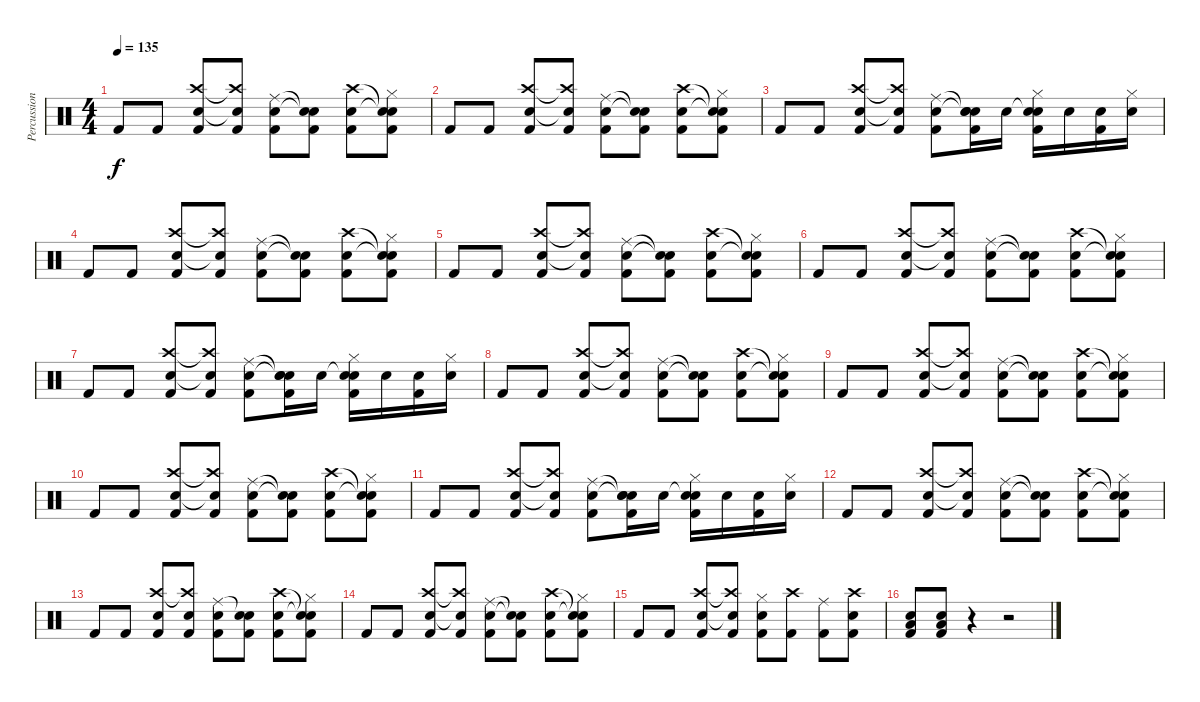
\track ("Percussion" "Percussion") {instrument percussion}
\staff {score}
\articulation defaults
\ts (4 4)
\tempo 135
\clef neutral
\ks c "Kick (hit) 2".8{dy f} "Kick (hit) 2".8
("Crash high (hit)" "Electric Snare (hit)" "Kick (hit) 2").8 ("Crash high (hit)"{t} "Electric Snare (hit)"{t} "Kick (hit) 2").8 ("Ride (middle)" "Electric Snare (hit)" "Kick (hit) 2").8 ("Snare (hit)"{t} "Snare (hit)"{t} "Kick (hit) 2").8 ("Crash high (hit)" "Electric Snare (hit)" "Kick (hit) 2").8 ("Snare (hit)"{t} "Snare (hit)"{t} "Hi-Hat (closed)" "Kick (hit) 2").8 |
"Kick (hit) 2".8 "Kick (hit) 2".8 ("Crash high (hit)" "Electric Snare (hit)" "Kick (hit) 2").8 ("Crash high (hit)"{t} "Electric Snare (hit)"{t} "Kick (hit) 2").8 ("Ride (middle)" "Electric Snare (hit)" "Kick (hit) 2").8 ("Snare (hit)"{t} "Snare (hit)"{t} "Kick (hit) 2").8 ("Crash high (hit)" "Electric Snare (hit)" "Kick (hit) 2").8 ("Snare (hit)"{t} "Snare (hit)"{t} "Hi-Hat (closed)" "Kick (hit) 2").8 |
"Kick (hit) 2".8 "Kick (hit) 2".8 ("Crash high (hit)" "Electric Snare (hit)" "Kick (hit) 2").8 ("Crash high (hit)"{t} "Electric Snare (hit)"{t} "Kick (hit) 2").8 ("Ride (middle)" "Electric Snare (hit)" "Kick (hit) 2").8 ("Snare (hit)"{t} "Snare (hit)"{t} "Electric Snare (hit)" "Kick (hit) 2").16 "Electric Snare (hit)".16 ("Snare (hit)"{t} "Hi-Hat (closed)" "Electric Snare (hit)" "Kick (hit) 2").16 "Electric Snare (hit)".16 ("Electric Snare (hit)" "Kick (hit) 2").16 ("Hi-Hat (closed)" "Electric Snare (hit)").16 |
"Kick (hit) 2".8 "Kick (hit) 2".8 ("Crash high (hit)" "Electric Snare (hit)" "Kick (hit) 2").8 ("Crash high (hit)"{t} "Electric Snare (hit)"{t} "Kick (hit) 2").8 ("Ride (middle)" "Electric Snare (hit)" "Kick (hit) 2").8 ("Snare (hit)"{t} "Snare (hit)"{t} "Kick (hit) 2").8 ("Crash high (hit)" "Electric Snare (hit)" "Kick (hit) 2").8 ("Snare (hit)"{t} "Snare (hit)"{t} "Hi-Hat (closed)" "Kick (hit) 2").8 |
"Kick (hit) 2".8 "Kick (hit) 2".8 ("Crash high (hit)" "Electric Snare (hit)" "Kick (hit) 2").8 ("Crash high (hit)"{t} "Electric Snare (hit)"{t} "Kick (hit) 2").8 ("Ride (middle)" "Electric Snare (hit)" "Kick (hit) 2").8 ("Snare (hit)"{t} "Snare (hit)"{t} "Kick (hit) 2").8 ("Crash high (hit)" "Electric Snare (hit)" "Kick (hit) 2").8 ("Snare (hit)"{t} "Snare (hit)"{t} "Hi-Hat (closed)" "Kick (hit) 2").8 |
"Kick (hit) 2".8 "Kick (hit) 2".8 ("Crash high (hit)" "Electric Snare (hit)" "Kick (hit) 2").8 ("Crash high (hit)"{t} "Electric Snare (hit)"{t} "Kick (hit) 2").8 ("Ride (middle)" "Electric Snare (hit)" "Kick (hit) 2").8 ("Snare (hit)"{t} "Snare (hit)"{t} "Kick (hit) 2").8 ("Crash high (hit)" "Electric Snare (hit)" "Kick (hit) 2").8 ("Snare (hit)"{t} "Snare (hit)"{t} "Hi-Hat (closed)" "Kick (hit) 2").8 |
"Kick (hit) 2".8 "Kick (hit) 2".8 ("Crash high (hit)" "Electric Snare (hit)" "Kick (hit) 2").8 ("Crash high (hit)"{t} "Electric Snare (hit)"{t} "Kick (hit) 2").8 ("Ride (middle)" "Electric Snare (hit)" "Kick (hit) 2").8 ("Snare (hit)"{t} "Snare (hit)"{t} "Electric Snare (hit)" "Kick (hit) 2").16 "Electric Snare (hit)".16 ("Snare (hit)"{t} "Hi-Hat (closed)" "Electric Snare (hit)" "Kick (hit) 2").16 "Electric Snare (hit)".16 ("Electric Snare (hit)" "Kick (hit) 2").16 ("Hi-Hat (closed)" "Electric Snare (hit)").16 |
"Kick (hit) 2".8 "Kick (hit) 2".8 ("Crash high (hit)" "Electric Snare (hit)" "Kick (hit) 2").8 ("Crash high (hit)"{t} "Electric Snare (hit)"{t} "Kick (hit) 2").8 ("Ride (middle)" "Electric Snare (hit)" "Kick (hit) 2").8 ("Snare (hit)"{t} "Snare (hit)"{t} "Kick (hit) 2").8 ("Crash high (hit)" "Electric Snare (hit)" "Kick (hit) 2").8 ("Snare (hit)"{t} "Snare (hit)"{t} "Hi-Hat (closed)" "Kick (hit) 2").8 |
"Kick (hit) 2".8 "Kick (hit) 2".8 ("Crash high (hit)" "Electric Snare (hit)" "Kick (hit) 2").8 ("Crash high (hit)"{t} "Electric Snare (hit)"{t} "Kick (hit) 2").8 ("Ride (middle)" "Electric Snare (hit)" "Kick (hit) 2").8 ("Snare (hit)"{t} "Snare (hit)"{t} "Kick (hit) 2").8 ("Crash high (hit)" "Electric Snare (hit)" "Kick (hit) 2").8 ("Snare (hit)"{t} "Snare (hit)"{t} "Hi-Hat (closed)" "Kick (hit) 2").8 |
"Kick (hit) 2".8 "Kick (hit) 2".8 ("Crash high (hit)" "Electric Snare (hit)" "Kick (hit) 2").8 ("Crash high (hit)"{t} "Electric Snare (hit)"{t} "Kick (hit) 2").8 ("Ride (middle)" "Electric Snare (hit)" "Kick (hit) 2").8 ("Snare (hit)"{t} "Snare (hit)"{t} "Kick (hit) 2").8 ("Crash high (hit)" "Electric Snare (hit)" "Kick (hit) 2").8 ("Snare (hit)"{t} "Snare (hit)"{t} "Hi-Hat (closed)" "Kick (hit) 2").8 |
"Kick (hit) 2".8 "Kick (hit) 2".8 ("Crash high (hit)" "Electric Snare (hit)" "Kick (hit) 2").8 ("Crash high (hit)"{t} "Electric Snare (hit)"{t} "Kick (hit) 2").8 ("Ride (middle)" "Electric Snare (hit)" "Kick (hit) 2").8 ("Snare (hit)"{t} "Snare (hit)"{t} "Electric Snare (hit)" "Kick (hit) 2").16 "Electric Snare (hit)".16 ("Snare (hit)"{t} "Hi-Hat (closed)" "Electric Snare (hit)" "Kick (hit) 2").16 "Electric Snare (hit)".16 ("Electric Snare (hit)" "Kick (hit) 2").16 ("Hi-Hat (closed)" "Electric Snare (hit)").16 |
"Kick (hit) 2".8 "Kick (hit) 2".8 ("Crash high (hit)" "Electric Snare (hit)" "Kick (hit) 2").8 ("Crash high (hit)"{t} "Electric Snare (hit)"{t} "Kick (hit) 2").8 ("Ride (middle)" "Electric Snare (hit)" "Kick (hit) 2").8 ("Snare (hit)"{t} "Snare (hit)"{t} "Kick (hit) 2").8 ("Crash high (hit)" "Electric Snare (hit)" "Kick (hit) 2").8 ("Snare (hit)"{t} "Snare (hit)"{t} "Hi-Hat (closed)" "Kick (hit) 2").8 |
"Kick (hit) 2".8 "Kick (hit) 2".8 ("Crash high (hit)" "Electric Snare (hit)" "Kick (hit) 2").8 ("Crash high (hit)"{t} "Electric Snare (hit)" "Kick (hit) 2").8 ("Ride (middle)" "Electric Snare (hit)" "Kick (hit) 2").8 ("Snare (hit)"{t} "Electric Snare (hit)" "Kick (hit) 2").8 ("Crash high (hit)" "Electric Snare (hit)" "Kick (hit) 2").8 ("Snare (hit)"{t} "Snare (hit)"{t} "Hi-Hat (closed)" "Kick (hit) 2").8 |
"Kick (hit) 2".8 "Kick (hit) 2".8 ("Crash high (hit)" "Electric Snare (hit)" "Kick (hit) 2").8 ("Crash high (hit)"{t} "Electric Snare (hit)"{t} "Kick (hit) 2").8 ("Ride (middle)" "Electric Snare (hit)" "Kick (hit) 2").8 ("Snare (hit)"{t} "Snare (hit)"{t} "Kick (hit) 2").8 ("Crash high (hit)" "Electric Snare (hit)" "Kick (hit) 2").8 ("Snare (hit)"{t} "Snare (hit)"{t} "Hi-Hat (closed)" "Kick (hit) 2").8 |
"Kick (hit) 2".8 "Kick (hit) 2".8 ("Crash high (hit)" "Electric Snare (hit)" "Kick (hit) 2").8 ("Crash high (hit)"{t} "Electric Snare (hit)"{t} "Kick (hit) 2").8 ("Hi-Hat (closed)" "Electric Snare (hit)" "Kick (hit) 2").8 ("Crash high (hit)" "Kick (hit) 2").8 ("Ride (middle)" "Kick (hit) 2").8 ("Crash high (hit)" "Electric Snare (hit)" "Kick (hit) 2").8 |
("Electric Snare (hit)" "Low Tom (hit)" "Kick (hit) 2").8 ("Electric Snare (hit)" "Low Tom (hit)" "Kick (hit) 2").8 r.4 r.2
